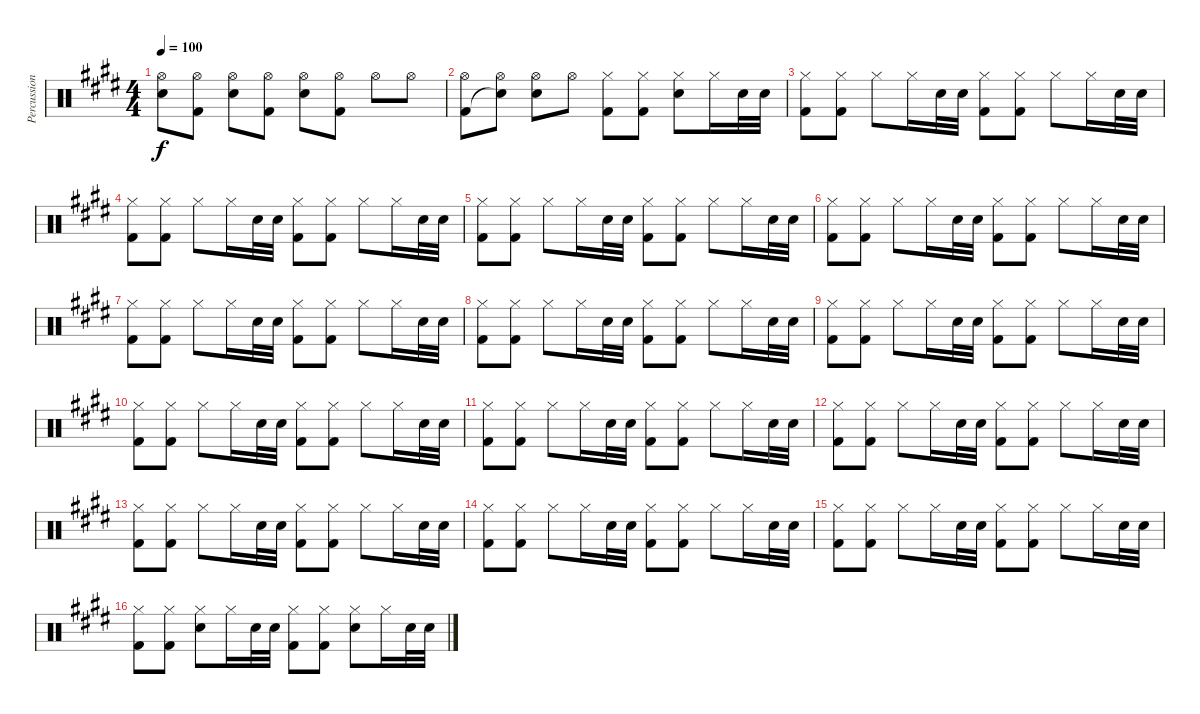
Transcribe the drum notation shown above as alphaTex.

\track ("Percussion" "Percussion") {instrument percussion}
\staff {score}
\articulation defaults
\ts (4 4)
\tempo 100
\clef neutral
\ks e
("Hi-Hat (open)" "Snare (hit) 2").8{dy f} ("Hi-Hat (open)" "Kick (hit) 2").8 ("Hi-Hat (open)" "Snare (hit) 2").8 ("Hi-Hat (open)" "Kick (hit) 2").8 ("Hi-Hat (open)" "Snare (hit) 2").8 ("Hi-Hat (open)" "Kick (hit) 2").8 "Hi-Hat (open)".8 "Hi-Hat (open)".8 |
("Hi-Hat (open)" "Kick (hit) 2").8 ("Hi-Hat (open)" "Snare (hit)"{t}).8 ("Hi-Hat (open)" "Snare (hit) 2").8 "Hi-Hat (open)".8 ("Hi-Hat (closed)" "Kick (hit) 2").8 ("Hi-Hat (closed)" "Kick (hit) 2").8 ("Hi-Hat (closed)" "Snare (hit) 2").8 "Hi-Hat (closed)".16 "Snare (hit) 2".32 "Snare (hit) 2".32 |
("Hi-Hat (closed)" "Kick (hit) 2").8 ("Hi-Hat (closed)" "Kick (hit) 2").8 "Hi-Hat (closed)".8 "Hi-Hat (closed)".16 "Snare (hit) 2".32 "Snare (hit) 2".32 ("Hi-Hat (closed)" "Kick (hit) 2").8 ("Hi-Hat (closed)" "Kick (hit) 2").8 "Hi-Hat (closed)".8 "Hi-Hat (closed)".16 "Snare (hit) 2".32 "Snare (hit) 2".32 |
("Hi-Hat (closed)" "Kick (hit) 2").8 ("Hi-Hat (closed)" "Kick (hit) 2").8 "Hi-Hat (closed)".8 "Hi-Hat (closed)".16 "Snare (hit) 2".32 "Snare (hit) 2".32 ("Hi-Hat (closed)" "Kick (hit) 2").8 ("Hi-Hat (closed)" "Kick (hit) 2").8 "Hi-Hat (closed)".8 "Hi-Hat (closed)".16 "Snare (hit) 2".32 "Snare (hit) 2".32 |
("Hi-Hat (closed)" "Kick (hit) 2").8 ("Hi-Hat (closed)" "Kick (hit) 2").8 "Hi-Hat (closed)".8 "Hi-Hat (closed)".16 "Snare (hit) 2".32 "Snare (hit) 2".32 ("Hi-Hat (closed)" "Kick (hit) 2").8 ("Hi-Hat (closed)" "Kick (hit) 2").8 "Hi-Hat (closed)".8 "Hi-Hat (closed)".16 "Snare (hit) 2".32 "Snare (hit) 2".32 |
("Hi-Hat (closed)" "Kick (hit) 2").8 ("Hi-Hat (closed)" "Kick (hit) 2").8 "Hi-Hat (closed)".8 "Hi-Hat (closed)".16 "Snare (hit) 2".32 "Snare (hit) 2".32 ("Hi-Hat (closed)" "Kick (hit) 2").8 ("Hi-Hat (closed)" "Kick (hit) 2").8 "Hi-Hat (closed)".8 "Hi-Hat (closed)".16 "Snare (hit) 2".32 "Snare (hit) 2".32 |
("Hi-Hat (closed)" "Kick (hit) 2").8 ("Hi-Hat (closed)" "Kick (hit) 2").8 "Hi-Hat (closed)".8 "Hi-Hat (closed)".16 "Snare (hit) 2".32 "Snare (hit) 2".32 ("Hi-Hat (closed)" "Kick (hit) 2").8 ("Hi-Hat (closed)" "Kick (hit) 2").8 "Hi-Hat (closed)".8 "Hi-Hat (closed)".16 "Snare (hit) 2".32 "Snare (hit) 2".32 |
("Hi-Hat (closed)" "Kick (hit) 2").8 ("Hi-Hat (closed)" "Kick (hit) 2").8 "Hi-Hat (closed)".8 "Hi-Hat (closed)".16 "Snare (hit) 2".32 "Snare (hit) 2".32 ("Hi-Hat (closed)" "Kick (hit) 2").8 ("Hi-Hat (closed)" "Kick (hit) 2").8 "Hi-Hat (closed)".8 "Hi-Hat (closed)".16 "Snare (hit) 2".32 "Snare (hit) 2".32 |
("Hi-Hat (closed)" "Kick (hit) 2").8 ("Hi-Hat (closed)" "Kick (hit) 2").8 "Hi-Hat (closed)".8 "Hi-Hat (closed)".16 "Snare (hit) 2".32 "Snare (hit) 2".32 ("Hi-Hat (closed)" "Kick (hit) 2").8 ("Hi-Hat (closed)" "Kick (hit) 2").8 "Hi-Hat (closed)".8 "Hi-Hat (closed)".16 "Snare (hit) 2".32 "Snare (hit) 2".32 |
("Hi-Hat (closed)" "Kick (hit) 2").8 ("Hi-Hat (closed)" "Kick (hit) 2").8 "Hi-Hat (closed)".8 "Hi-Hat (closed)".16 "Snare (hit) 2".32 "Snare (hit) 2".32 ("Hi-Hat (closed)" "Kick (hit) 2").8 ("Hi-Hat (closed)" "Kick (hit) 2").8 "Hi-Hat (closed)".8 "Hi-Hat (closed)".16 "Snare (hit) 2".32 "Snare (hit) 2".32 |
("Hi-Hat (closed)" "Kick (hit) 2").8 ("Hi-Hat (closed)" "Kick (hit) 2").8 "Hi-Hat (closed)".8 "Hi-Hat (closed)".16 "Snare (hit) 2".32 "Snare (hit) 2".32 ("Hi-Hat (closed)" "Kick (hit) 2").8 ("Hi-Hat (closed)" "Kick (hit) 2").8 "Hi-Hat (closed)".8 "Hi-Hat (closed)".16 "Snare (hit) 2".32 "Snare (hit) 2".32 |
("Hi-Hat (closed)" "Kick (hit) 2").8 ("Hi-Hat (closed)" "Kick (hit) 2").8 "Hi-Hat (closed)".8 "Hi-Hat (closed)".16 "Snare (hit) 2".32 "Snare (hit) 2".32 ("Hi-Hat (closed)" "Kick (hit) 2").8 ("Hi-Hat (closed)" "Kick (hit) 2").8 "Hi-Hat (closed)".8 "Hi-Hat (closed)".16 "Snare (hit) 2".32 "Snare (hit) 2".32 |
("Hi-Hat (closed)" "Kick (hit) 2").8 ("Hi-Hat (closed)" "Kick (hit) 2").8 "Hi-Hat (closed)".8 "Hi-Hat (closed)".16 "Snare (hit) 2".32 "Snare (hit) 2".32 ("Hi-Hat (closed)" "Kick (hit) 2").8 ("Hi-Hat (closed)" "Kick (hit) 2").8 "Hi-Hat (closed)".8 "Hi-Hat (closed)".16 "Snare (hit) 2".32 "Snare (hit) 2".32 |
("Hi-Hat (closed)" "Kick (hit) 2").8 ("Hi-Hat (closed)" "Kick (hit) 2").8 "Hi-Hat (closed)".8 "Hi-Hat (closed)".16 "Snare (hit) 2".32 "Snare (hit) 2".32 ("Hi-Hat (closed)" "Kick (hit) 2").8 ("Hi-Hat (closed)" "Kick (hit) 2").8 "Hi-Hat (closed)".8 "Hi-Hat (closed)".16 "Snare (hit) 2".32 "Snare (hit) 2".32 |
("Hi-Hat (closed)" "Kick (hit) 2").8 ("Hi-Hat (closed)" "Kick (hit) 2").8 "Hi-Hat (closed)".8 "Hi-Hat (closed)".16 "Snare (hit) 2".32 "Snare (hit) 2".32 ("Hi-Hat (closed)" "Kick (hit) 2").8 ("Hi-Hat (closed)" "Kick (hit) 2").8 "Hi-Hat (closed)".8 "Hi-Hat (closed)".16 "Snare (hit) 2".32 "Snare (hit) 2".32 |
("Hi-Hat (closed)" "Kick (hit) 2").8 ("Hi-Hat (closed)" "Kick (hit) 2").8 ("Hi-Hat (closed)" "Snare (hit) 2").8 "Hi-Hat (closed)".16 "Snare (hit) 2".32 "Snare (hit) 2".32 ("Hi-Hat (closed)" "Kick (hit) 2").8 ("Hi-Hat (closed)" "Kick (hit) 2").8 ("Hi-Hat (closed)" "Snare (hit) 2").8 "Hi-Hat (closed)".16 "Snare (hit) 2".32 "Snare (hit) 2".32
